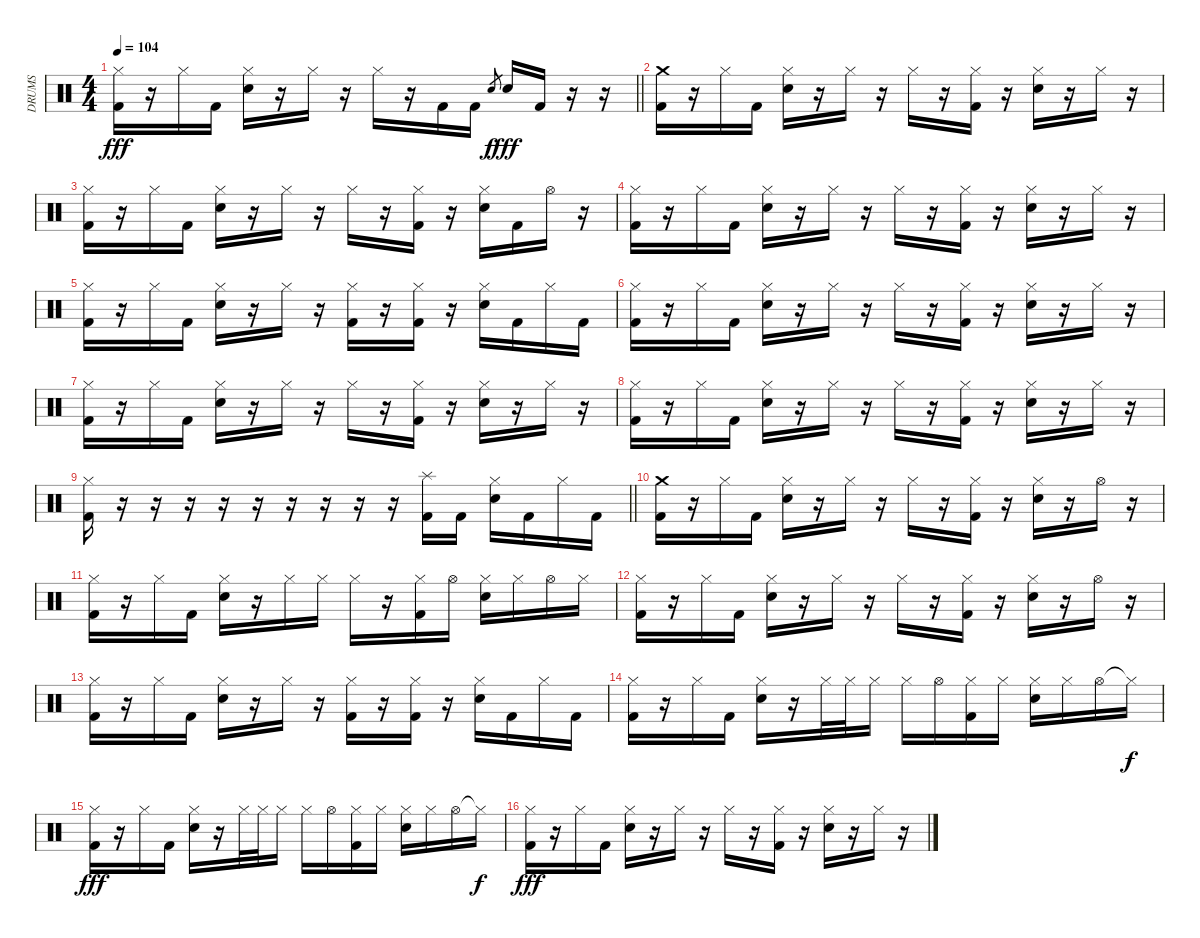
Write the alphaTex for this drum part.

\track ("DRUMS" "DRUMS") {instrument percussion}
\staff {score}
\articulation defaults
\ts (4 4)
\tempo 104
\clef neutral
\barLineRight lightlight
\ks c
("Hi-Hat (closed)" "Kick (hit) 2").16{dy fff} r.16 "Hi-Hat (closed)".16 "Kick (hit) 2".16 ("Hi-Hat (closed)" "Snare (hit) 2").16 r.16 "Hi-Hat (closed)".16 r.16 "Hi-Hat (closed)".16 r.16 "Kick (hit) 2".16 "Kick (hit) 2".16 "Snare (hit) 2".8{gr dy f} "Snare (hit) 2".16{dy fff} "Kick (hit) 2".16 r.16 r.16 |
\section ("" "")
("Crash medium (hit)" "Kick (hit) 2").16 r.16 "Hi-Hat (closed)".16 "Kick (hit) 2".16 ("Hi-Hat (closed)" "Snare (hit) 2").16 r.16 "Hi-Hat (closed)".16 r.16 "Hi-Hat (closed)".16 r.16 ("Hi-Hat (closed)" "Kick (hit) 2").16 r.16 ("Hi-Hat (closed)" "Snare (hit) 2").16 r.16 "Hi-Hat (closed)".16 r.16 |
("Hi-Hat (closed)" "Kick (hit) 2").16 r.16 "Hi-Hat (closed)".16 "Kick (hit) 2".16 ("Hi-Hat (closed)" "Snare (hit) 2").16 r.16 "Hi-Hat (closed)".16 r.16 "Hi-Hat (closed)".16 r.16 ("Hi-Hat (closed)" "Kick (hit) 2").16 r.16 ("Hi-Hat (closed)" "Snare (hit) 2").16 "Kick (hit) 2".16 "Hi-Hat (open)".16 r.16 |
("Hi-Hat (closed)" "Kick (hit) 2").16 r.16 "Hi-Hat (closed)".16 "Kick (hit) 2".16 ("Hi-Hat (closed)" "Snare (hit) 2").16 r.16 "Hi-Hat (closed)".16 r.16 "Hi-Hat (closed)".16 r.16 ("Hi-Hat (closed)" "Kick (hit) 2").16 r.16 ("Hi-Hat (closed)" "Snare (hit) 2").16 r.16 "Hi-Hat (closed)".16 r.16 |
("Hi-Hat (closed)" "Kick (hit) 2").16 r.16 "Hi-Hat (closed)".16 "Kick (hit) 2".16 ("Hi-Hat (closed)" "Snare (hit) 2").16 r.16 "Hi-Hat (closed)".16 r.16 ("Hi-Hat (closed)" "Kick (hit) 2").16 r.16 ("Hi-Hat (closed)" "Kick (hit) 2").16 r.16 ("Hi-Hat (closed)" "Snare (hit) 2").16 "Kick (hit) 2".16 "Hi-Hat (closed)".16 "Kick (hit) 2".16 |
("Hi-Hat (closed)" "Kick (hit) 2").16 r.16 "Hi-Hat (closed)".16 "Kick (hit) 2".16 ("Hi-Hat (closed)" "Snare (hit) 2").16 r.16 "Hi-Hat (closed)".16 r.16 "Hi-Hat (closed)".16 r.16 ("Hi-Hat (closed)" "Kick (hit) 2").16 r.16 ("Hi-Hat (closed)" "Snare (hit) 2").16 r.16 "Hi-Hat (closed)".16 r.16 |
("Hi-Hat (closed)" "Kick (hit) 2").16 r.16 "Hi-Hat (closed)".16 "Kick (hit) 2".16 ("Hi-Hat (closed)" "Snare (hit) 2").16 r.16 "Hi-Hat (closed)".16 r.16 "Hi-Hat (closed)".16 r.16 ("Hi-Hat (closed)" "Kick (hit) 2").16 r.16 ("Hi-Hat (closed)" "Snare (hit) 2").16 r.16 "Hi-Hat (closed)".16 r.16 |
("Hi-Hat (closed)" "Kick (hit) 2").16 r.16 "Hi-Hat (closed)".16 "Kick (hit) 2".16 ("Hi-Hat (closed)" "Snare (hit) 2").16 r.16 "Hi-Hat (closed)".16 r.16 "Hi-Hat (closed)".16 r.16 ("Hi-Hat (closed)" "Kick (hit) 2").16 r.16 ("Hi-Hat (closed)" "Snare (hit) 2").16 r.16 "Hi-Hat (closed)".16 r.16 |
\barLineRight lightlight
("Hi-Hat (closed)" "Kick (hit) 2").16 r.16 r.16 r.16 r.16 r.16 r.16 r.16 r.16 r.16 ("Splash (hit)" "Kick (hit) 2").16 "Kick (hit) 2".16 ("Hi-Hat (closed)" "Snare (hit) 2").16 "Kick (hit) 2".16 "Hi-Hat (closed)".16 "Kick (hit) 2".16 |
\section ("" "")
("Crash medium (hit)" "Kick (hit) 2").16 r.16 "Hi-Hat (closed)".16 "Kick (hit) 2".16 ("Hi-Hat (closed)" "Snare (hit) 2").16 r.16 "Hi-Hat (closed)".16 r.16 "Hi-Hat (closed)".16 r.16 ("Hi-Hat (closed)" "Kick (hit) 2").16 r.16 ("Hi-Hat (closed)" "Snare (hit) 2").16 r.16 "Hi-Hat (open)".16 r.16 |
("Hi-Hat (closed)" "Kick (hit) 2").16 r.16 "Hi-Hat (closed)".16 "Kick (hit) 2".16 ("Hi-Hat (closed)" "Snare (hit) 2").16 r.16 "Hi-Hat (closed)".16 "Hi-Hat (closed)".16 "Hi-Hat (closed)".16 r.16 ("Hi-Hat (closed)" "Kick (hit) 2").16 "Hi-Hat (open)".16 ("Hi-Hat (closed)" "Snare (hit) 2").16 "Hi-Hat (closed)".16 "Hi-Hat (open)".16 "Hi-Hat (closed)".16 |
("Hi-Hat (closed)" "Kick (hit) 2").16 r.16 "Hi-Hat (closed)".16 "Kick (hit) 2".16 ("Hi-Hat (closed)" "Snare (hit) 2").16 r.16 "Hi-Hat (closed)".16 r.16 "Hi-Hat (closed)".16 r.16 ("Hi-Hat (closed)" "Kick (hit) 2").16 r.16 ("Hi-Hat (closed)" "Snare (hit) 2").16 r.16 "Hi-Hat (open)".16 r.16 |
("Hi-Hat (closed)" "Kick (hit) 2").16 r.16 "Hi-Hat (closed)".16 "Kick (hit) 2".16 ("Hi-Hat (closed)" "Snare (hit) 2").16 r.16 "Hi-Hat (closed)".16 r.16 ("Hi-Hat (closed)" "Kick (hit) 2").16 r.16 ("Hi-Hat (closed)" "Kick (hit) 2").16 r.16 ("Hi-Hat (closed)" "Snare (hit) 2").16 "Kick (hit) 2".16 "Hi-Hat (closed)".16 "Kick (hit) 2".16 |
("Hi-Hat (closed)" "Kick (hit) 2").16 r.16 "Hi-Hat (closed)".16 "Kick (hit) 2".16 ("Hi-Hat (closed)" "Snare (hit) 2").16 r.16 "Hi-Hat (closed)".32 "Hi-Hat (closed)".32 "Hi-Hat (closed)".16 "Hi-Hat (closed)".16 "Hi-Hat (open)".16 ("Hi-Hat (closed)" "Kick (hit) 2").16 "Hi-Hat (closed)".16 ("Hi-Hat (closed)" "Snare (hit) 2").16 "Hi-Hat (closed)".16 "Hi-Hat (open)".16 "Hi-Hat (closed)"{t}.16{dy f} |
("Hi-Hat (closed)" "Kick (hit) 2").16{dy fff} r.16 "Hi-Hat (closed)".16 "Kick (hit) 2".16 ("Hi-Hat (closed)" "Snare (hit) 2").16 r.16 "Hi-Hat (closed)".32 "Hi-Hat (closed)".32 "Hi-Hat (closed)".16 "Hi-Hat (closed)".16 "Hi-Hat (open)".16 ("Hi-Hat (closed)" "Kick (hit) 2").16 "Hi-Hat (closed)".16 ("Hi-Hat (closed)" "Snare (hit) 2").16 "Hi-Hat (closed)".16 "Hi-Hat (open)".16 "Hi-Hat (closed)"{t}.16{dy f} |
("Hi-Hat (closed)" "Kick (hit) 2").16{dy fff} r.16 "Hi-Hat (closed)".16 "Kick (hit) 2".16 ("Hi-Hat (closed)" "Snare (hit) 2").16 r.16 "Hi-Hat (closed)".16 r.16 "Hi-Hat (closed)".16 r.16 ("Hi-Hat (closed)" "Kick (hit) 2").16 r.16 ("Hi-Hat (closed)" "Snare (hit) 2").16 r.16 "Hi-Hat (closed)".16 r.16
